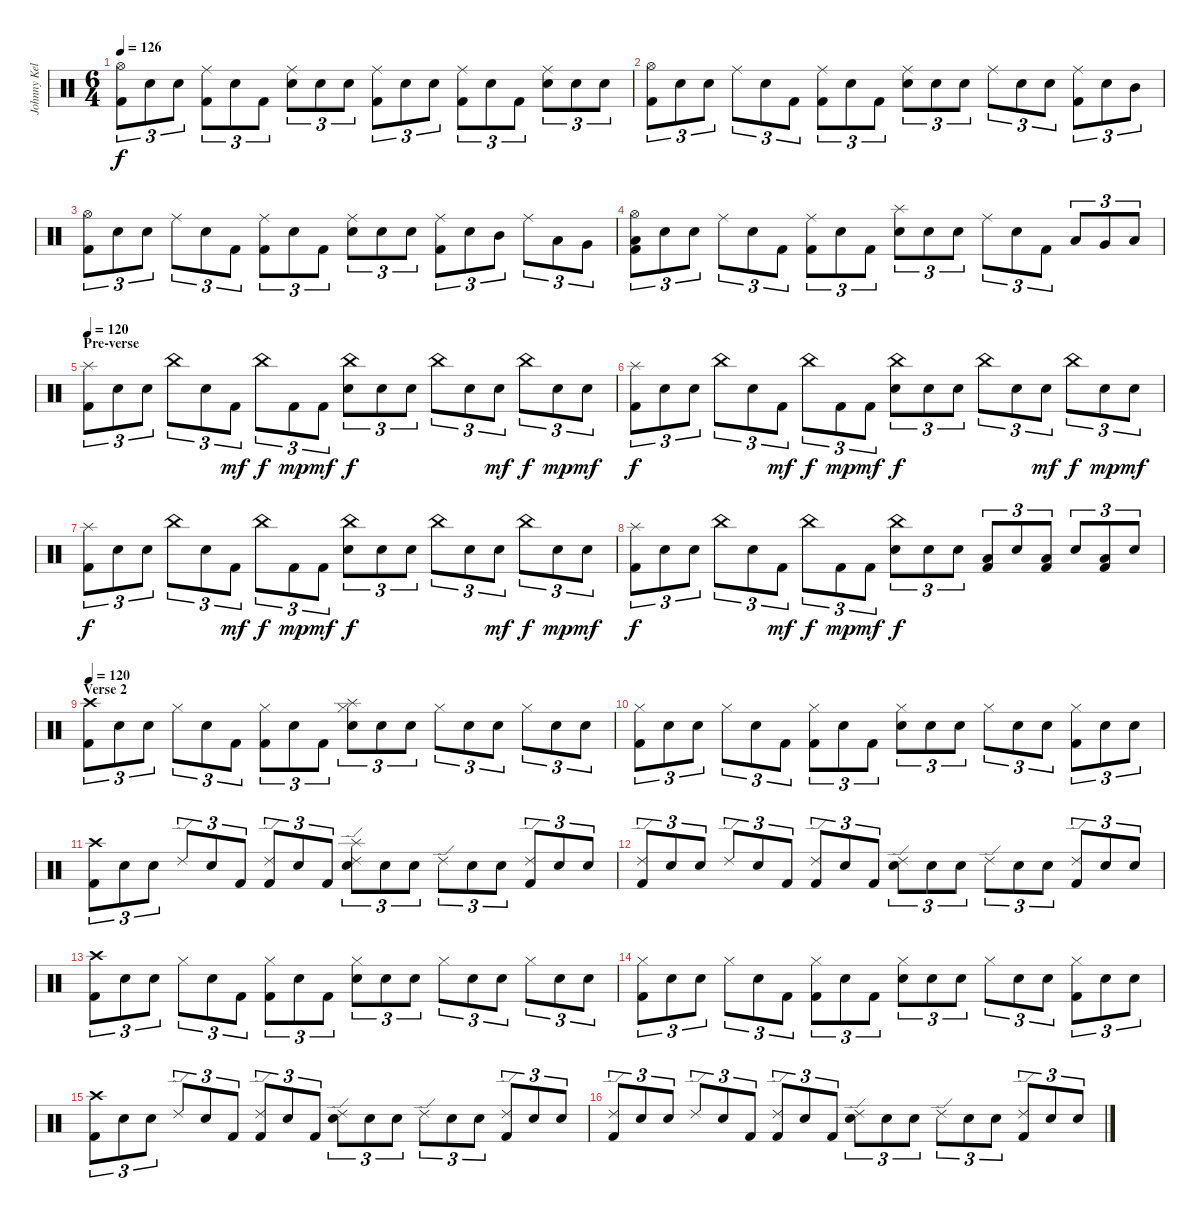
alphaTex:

\track ("Johnny Kelly - Drums" "Johnny Kel") {instrument percussion}
\staff {score}
\articulation defaults
\ts (6 4)
\tempo 126
\clef neutral
\ks c
("Hi-Hat (open)" "Kick (hit) 2").8{tu (3 2) dy f} "Snare (hit)".8{tu (3 2)} "Electric Snare (hit)".8{tu (3 2)} ("Ride (middle)" "Kick (hit) 2").8{tu (3 2)} "Snare (hit)".8{tu (3 2)} "Kick (hit) 2".8{tu (3 2)} ("Ride (middle)" "Electric Snare (hit)").8{tu (3 2)} "Snare (hit)".8{tu (3 2)} "Electric Snare (hit)".8{tu (3 2)} ("Ride (middle)" "Kick (hit) 2").8{tu (3 2)} "Snare (hit)".8{tu (3 2)} "Electric Snare (hit)".8{tu (3 2)} ("Ride (middle)" "Kick (hit) 2").8{tu (3 2)} "Snare (hit)".8{tu (3 2)} "Kick (hit) 2".8{tu (3 2)} ("Ride (middle)" "Electric Snare (hit)").8{tu (3 2)} "Snare (hit)".8{tu (3 2)} "Electric Snare (hit)".8{tu (3 2)} |
("Hi-Hat (open)" "Kick (hit) 2").8{tu (3 2)} "Snare (hit)".8{tu (3 2)} "Snare (hit)".8{tu (3 2)} "Ride (middle)".8{tu (3 2)} "Snare (hit)".8{tu (3 2)} "Kick (hit) 2".8{tu (3 2)} ("Ride (middle)" "Kick (hit) 2").8{tu (3 2)} "Snare (hit)".8{tu (3 2)} "Kick (hit) 2".8{tu (3 2)} ("Ride (middle)" "Electric Snare (hit)").8{tu (3 2)} "Snare (hit)".8{tu (3 2)} "Snare (hit)".8{tu (3 2)} "Ride (middle)".8{tu (3 2)} "Snare (hit)".8{tu (3 2)} "Electric Snare (hit)".8{tu (3 2)} ("Ride (middle)" "Kick (hit) 2").8{tu (3 2)} "Snare (hit)".8{tu (3 2)} "Mid Tom (hit)".8{tu (3 2)} |
("Hi-Hat (open)" "Kick (hit) 2").8{tu (3 2)} "Snare (hit)".8{tu (3 2)} "Snare (hit)".8{tu (3 2)} "Ride (middle)".8{tu (3 2)} "Snare (hit)".8{tu (3 2)} "Kick (hit) 2".8{tu (3 2)} ("Ride (middle)" "Kick (hit) 2").8{tu (3 2)} "Snare (hit)".8{tu (3 2)} "Kick (hit) 2".8{tu (3 2)} ("Ride (middle)" "Electric Snare (hit)").8{tu (3 2)} "Snare (hit)".8{tu (3 2)} "Electric Snare (hit)".8{tu (3 2)} ("Ride (middle)" "Kick (hit) 2").8{tu (3 2)} "Snare (hit)".8{tu (3 2)} "Mid Tom (hit)".8{tu (3 2)} "Ride (middle)".8{tu (3 2)} "Low Tom (hit)".8{tu (3 2)} "Very Low Tom (hit)".8{tu (3 2)} |
("Hi-Hat (open)" "Low Floor Tom (hit)" "Kick (hit) 2").8{tu (3 2)} "Snare (hit)".8{tu (3 2)} "Snare (hit)".8{tu (3 2)} "Ride (middle)".8{tu (3 2)} "Snare (hit)".8{tu (3 2)} "Kick (hit) 2".8{tu (3 2)} ("Ride (middle)" "Kick (hit) 2").8{tu (3 2)} "Snare (hit)".8{tu (3 2)} "Kick (hit) 2".8{tu (3 2)} ("Splash (hit)" "Electric Snare (hit)").8{tu (3 2)} "Snare (hit)".8{tu (3 2)} "Snare (hit)".8{tu (3 2)} "Ride (middle)".8{tu (3 2)} "Electric Snare (hit)".8{tu (3 2)} "Kick (hit) 2".8{tu (3 2)} "Low Tom (hit)".8{tu (3 2)} "Very Low Tom (hit)".8{tu (3 2)} "Low Floor Tom (hit)".8{tu (3 2)} |
\section ("" "Pre-verse")
\tempo 120
("Splash (hit)" "Kick (hit) 2").8{tu (3 2) volume 16 balance 8} "Snare (hit)".8{tu (3 2)} "Snare (hit)".8{tu (3 2)} "China (hit)".8{tu (3 2)} "Snare (hit)".8{tu (3 2)} "Kick (hit) 2".8{tu (3 2) dy mf} "China (hit)".8{tu (3 2) dy f} "Kick (hit) 2".8{tu (3 2) dy mp} "Kick (hit) 2".8{tu (3 2) dy mf} ("China (hit)" "Electric Snare (hit)").8{tu (3 2) dy f} "Snare (hit)".8{tu (3 2)} "Snare (hit)".8{tu (3 2)} "China (hit)".8{tu (3 2)} "Snare (hit)".8{tu (3 2)} "Electric Snare (hit)".8{tu (3 2) dy mf} "China (hit)".8{tu (3 2) dy f} "Electric Snare (hit)".8{tu (3 2) dy mp} "Electric Snare (hit)".8{tu (3 2) dy mf} |
("Splash (hit)" "Kick (hit) 2").8{tu (3 2) dy f} "Snare (hit)".8{tu (3 2)} "Snare (hit)".8{tu (3 2)} "China (hit)".8{tu (3 2)} "Snare (hit)".8{tu (3 2)} "Kick (hit) 2".8{tu (3 2) dy mf} "China (hit)".8{tu (3 2) dy f} "Kick (hit) 2".8{tu (3 2) dy mp} "Kick (hit) 2".8{tu (3 2) dy mf} ("China (hit)" "Electric Snare (hit)").8{tu (3 2) dy f} "Snare (hit)".8{tu (3 2)} "Snare (hit)".8{tu (3 2)} "China (hit)".8{tu (3 2)} "Snare (hit)".8{tu (3 2)} "Electric Snare (hit)".8{tu (3 2) dy mf} "China (hit)".8{tu (3 2) dy f} "Electric Snare (hit)".8{tu (3 2) dy mp} "Electric Snare (hit)".8{tu (3 2) dy mf} |
("Splash (hit)" "Kick (hit) 2").8{tu (3 2) dy f} "Snare (hit)".8{tu (3 2)} "Snare (hit)".8{tu (3 2)} "China (hit)".8{tu (3 2)} "Snare (hit)".8{tu (3 2)} "Kick (hit) 2".8{tu (3 2) dy mf} "China (hit)".8{tu (3 2) dy f} "Kick (hit) 2".8{tu (3 2) dy mp} "Kick (hit) 2".8{tu (3 2) dy mf} ("China (hit)" "Electric Snare (hit)").8{tu (3 2) dy f} "Snare (hit)".8{tu (3 2)} "Snare (hit)".8{tu (3 2)} "China (hit)".8{tu (3 2)} "Snare (hit)".8{tu (3 2)} "Electric Snare (hit)".8{tu (3 2) dy mf} "China (hit)".8{tu (3 2) dy f} "Electric Snare (hit)".8{tu (3 2) dy mp} "Electric Snare (hit)".8{tu (3 2) dy mf} |
("Splash (hit)" "Kick (hit) 2").8{tu (3 2) dy f} "Snare (hit)".8{tu (3 2)} "Snare (hit)".8{tu (3 2)} "China (hit)".8{tu (3 2)} "Snare (hit)".8{tu (3 2)} "Kick (hit) 2".8{tu (3 2) dy mf} "China (hit)".8{tu (3 2) dy f} "Kick (hit) 2".8{tu (3 2) dy mp} "Kick (hit) 2".8{tu (3 2) dy mf} ("China (hit)" "Electric Snare (hit)").8{tu (3 2) dy f} "Snare (hit)".8{tu (3 2)} "Snare (hit)".8{tu (3 2)} ("Low Floor Tom (hit)" "Kick (hit) 2").8{tu (3 2)} "Snare (hit)".8{tu (3 2)} ("Low Floor Tom (hit)" "Kick (hit) 2").8{tu (3 2)} "Snare (hit)".8{tu (3 2)} ("Low Floor Tom (hit)" "Kick (hit) 2").8{tu (3 2)} "Snare (hit)".8{tu (3 2)} |
\section ("" "Verse 2")
\tempo 120
("Crash high (hit)" "Kick (hit) 2").8{tu (3 2) volume 16 balance 8} "Snare (hit)".8{tu (3 2)} "Snare (hit)".8{tu (3 2)} "Hi-Hat (closed)".8{tu (3 2)} "Snare (hit)".8{tu (3 2)} "Kick (hit) 2".8{tu (3 2)} ("Hi-Hat (closed)" "Kick (hit) 2").8{tu (3 2)} "Snare (hit)".8{tu (3 2)} "Kick (hit) 2".8{tu (3 2)} ("Hi-Hat (closed)" "Splash (hit)" "Electric Snare (hit)").8{tu (3 2)} "Snare (hit)".8{tu (3 2)} "Snare (hit)".8{tu (3 2)} "Hi-Hat (closed)".8{tu (3 2)} "Snare (hit)".8{tu (3 2)} "Snare (hit)".8{tu (3 2)} "Hi-Hat (closed)".8{tu (3 2)} "Snare (hit)".8{tu (3 2)} "Snare (hit)".8{tu (3 2)} |
("Hi-Hat (closed)" "Kick (hit) 2").8{tu (3 2)} "Snare (hit)".8{tu (3 2)} "Snare (hit)".8{tu (3 2)} "Hi-Hat (closed)".8{tu (3 2)} "Snare (hit)".8{tu (3 2)} "Kick (hit) 2".8{tu (3 2)} ("Hi-Hat (closed)" "Kick (hit) 2").8{tu (3 2)} "Snare (hit)".8{tu (3 2)} "Kick (hit) 2".8{tu (3 2)} ("Hi-Hat (closed)" "Electric Snare (hit)").8{tu (3 2)} "Snare (hit)".8{tu (3 2)} "Snare (hit)".8{tu (3 2)} "Hi-Hat (closed)".8{tu (3 2)} "Snare (hit)".8{tu (3 2)} "Electric Snare (hit)".8{tu (3 2)} ("Hi-Hat (closed)" "Kick (hit) 2").8{tu (3 2)} "Snare (hit)".8{tu (3 2)} "Electric Snare (hit)".8{tu (3 2)} |
("Crash high (hit)" "Kick (hit) 2").8{tu (3 2)} "Snare (hit)".8{tu (3 2)} "Snare (hit)".8{tu (3 2)} "Ride (edge) 2".8{tu (3 2)} "Snare (hit)".8{tu (3 2)} "Kick (hit) 2".8{tu (3 2)} ("Ride (edge) 2" "Kick (hit) 2").8{tu (3 2)} "Snare (hit)".8{tu (3 2)} "Kick (hit) 2".8{tu (3 2)} ("Ride (edge) 2" "Splash (hit)" "Electric Snare (hit)").8{tu (3 2)} "Snare (hit)".8{tu (3 2)} "Snare (hit)".8{tu (3 2)} "Ride (edge) 2".8{tu (3 2)} "Snare (hit)".8{tu (3 2)} "Electric Snare (hit)".8{tu (3 2)} ("Ride (edge) 2" "Kick (hit) 2").8{tu (3 2)} "Snare (hit)".8{tu (3 2)} "Electric Snare (hit)".8{tu (3 2)} |
("Ride (edge) 2" "Kick (hit) 2").8{tu (3 2)} "Snare (hit)".8{tu (3 2)} "Snare (hit)".8{tu (3 2)} "Ride (edge) 2".8{tu (3 2)} "Snare (hit)".8{tu (3 2)} "Kick (hit) 2".8{tu (3 2)} ("Ride (edge) 2" "Kick (hit) 2").8{tu (3 2)} "Snare (hit)".8{tu (3 2)} "Kick (hit) 2".8{tu (3 2)} ("Ride (edge) 2" "Electric Snare (hit)").8{tu (3 2)} "Snare (hit)".8{tu (3 2)} "Snare (hit)".8{tu (3 2)} "Ride (edge) 2".8{tu (3 2)} "Snare (hit)".8{tu (3 2)} "Electric Snare (hit)".8{tu (3 2)} ("Ride (edge) 2" "Kick (hit) 2").8{tu (3 2)} "Snare (hit)".8{tu (3 2)} "Electric Snare (hit)".8{tu (3 2)} |
("Crash high (hit)" "Kick (hit) 2").8{tu (3 2)} "Snare (hit)".8{tu (3 2)} "Snare (hit)".8{tu (3 2)} "Hi-Hat (closed)".8{tu (3 2)} "Snare (hit)".8{tu (3 2)} "Kick (hit) 2".8{tu (3 2)} ("Hi-Hat (closed)" "Kick (hit) 2").8{tu (3 2)} "Snare (hit)".8{tu (3 2)} "Kick (hit) 2".8{tu (3 2)} ("Hi-Hat (closed)" "Electric Snare (hit)").8{tu (3 2)} "Snare (hit)".8{tu (3 2)} "Snare (hit)".8{tu (3 2)} "Hi-Hat (closed)".8{tu (3 2)} "Snare (hit)".8{tu (3 2)} "Snare (hit)".8{tu (3 2)} "Hi-Hat (closed)".8{tu (3 2)} "Snare (hit)".8{tu (3 2)} "Snare (hit)".8{tu (3 2)} |
("Hi-Hat (closed)" "Kick (hit) 2").8{tu (3 2)} "Snare (hit)".8{tu (3 2)} "Snare (hit)".8{tu (3 2)} "Hi-Hat (closed)".8{tu (3 2)} "Snare (hit)".8{tu (3 2)} "Kick (hit) 2".8{tu (3 2)} ("Hi-Hat (closed)" "Kick (hit) 2").8{tu (3 2)} "Snare (hit)".8{tu (3 2)} "Kick (hit) 2".8{tu (3 2)} ("Hi-Hat (closed)" "Electric Snare (hit)").8{tu (3 2)} "Snare (hit)".8{tu (3 2)} "Snare (hit)".8{tu (3 2)} "Hi-Hat (closed)".8{tu (3 2)} "Snare (hit)".8{tu (3 2)} "Electric Snare (hit)".8{tu (3 2)} ("Hi-Hat (closed)" "Kick (hit) 2").8{tu (3 2)} "Snare (hit)".8{tu (3 2)} "Electric Snare (hit)".8{tu (3 2)} |
("Crash high (hit)" "Kick (hit) 2").8{tu (3 2)} "Snare (hit)".8{tu (3 2)} "Snare (hit)".8{tu (3 2)} "Ride (edge) 2".8{tu (3 2)} "Snare (hit)".8{tu (3 2)} "Kick (hit) 2".8{tu (3 2)} ("Ride (edge) 2" "Kick (hit) 2").8{tu (3 2)} "Snare (hit)".8{tu (3 2)} "Kick (hit) 2".8{tu (3 2)} ("Ride (edge) 2" "Electric Snare (hit)").8{tu (3 2)} "Snare (hit)".8{tu (3 2)} "Snare (hit)".8{tu (3 2)} "Ride (edge) 2".8{tu (3 2)} "Snare (hit)".8{tu (3 2)} "Electric Snare (hit)".8{tu (3 2)} ("Ride (edge) 2" "Kick (hit) 2").8{tu (3 2)} "Snare (hit)".8{tu (3 2)} "Electric Snare (hit)".8{tu (3 2)} |
("Ride (edge) 2" "Kick (hit) 2").8{tu (3 2)} "Snare (hit)".8{tu (3 2)} "Snare (hit)".8{tu (3 2)} "Ride (edge) 2".8{tu (3 2)} "Snare (hit)".8{tu (3 2)} "Kick (hit) 2".8{tu (3 2)} ("Ride (edge) 2" "Kick (hit) 2").8{tu (3 2)} "Snare (hit)".8{tu (3 2)} "Kick (hit) 2".8{tu (3 2)} ("Ride (edge) 2" "Electric Snare (hit)").8{tu (3 2)} "Snare (hit)".8{tu (3 2)} "Snare (hit)".8{tu (3 2)} "Ride (edge) 2".8{tu (3 2)} "Snare (hit)".8{tu (3 2)} "Electric Snare (hit)".8{tu (3 2)} ("Ride (edge) 2" "Kick (hit) 2").8{tu (3 2)} "Snare (hit)".8{tu (3 2)} "Electric Snare (hit)".8{tu (3 2)}
